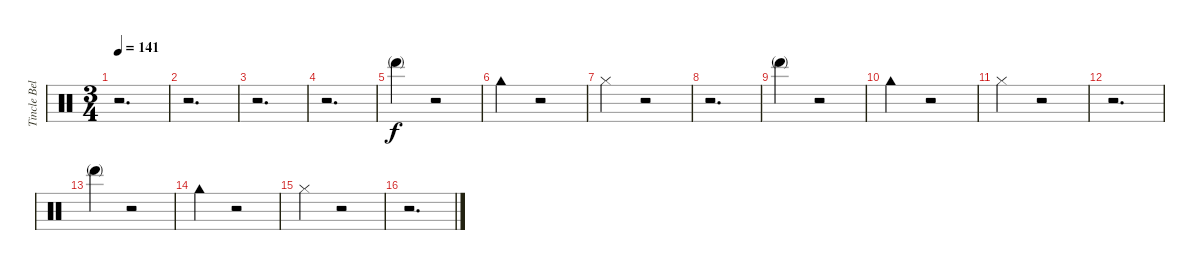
\track ("Tincle Bell" "Tincle Bel") {instrument percussion}
\staff {score}
\articulation defaults
\ts (3 4)
\tempo 141
\clef neutral
\ks c
r.2{d dy f} |
r.2{d} |
r.2{d} |
r.2{d} |
"Hand (mute)".4 r.2 |
"Cowbell high (hit)".4 r.2 |
"Cowbell high (tip)".4 r.2 |
r.2{d} |
"Hand (mute)".4 r.2 |
"Cowbell high (hit)".4 r.2 |
"Cowbell high (tip)".4 r.2 |
r.2{d} |
"Hand (mute)".4 r.2 |
"Cowbell high (hit)".4 r.2 |
"Cowbell high (tip)".4 r.2 |
r.2{d}
